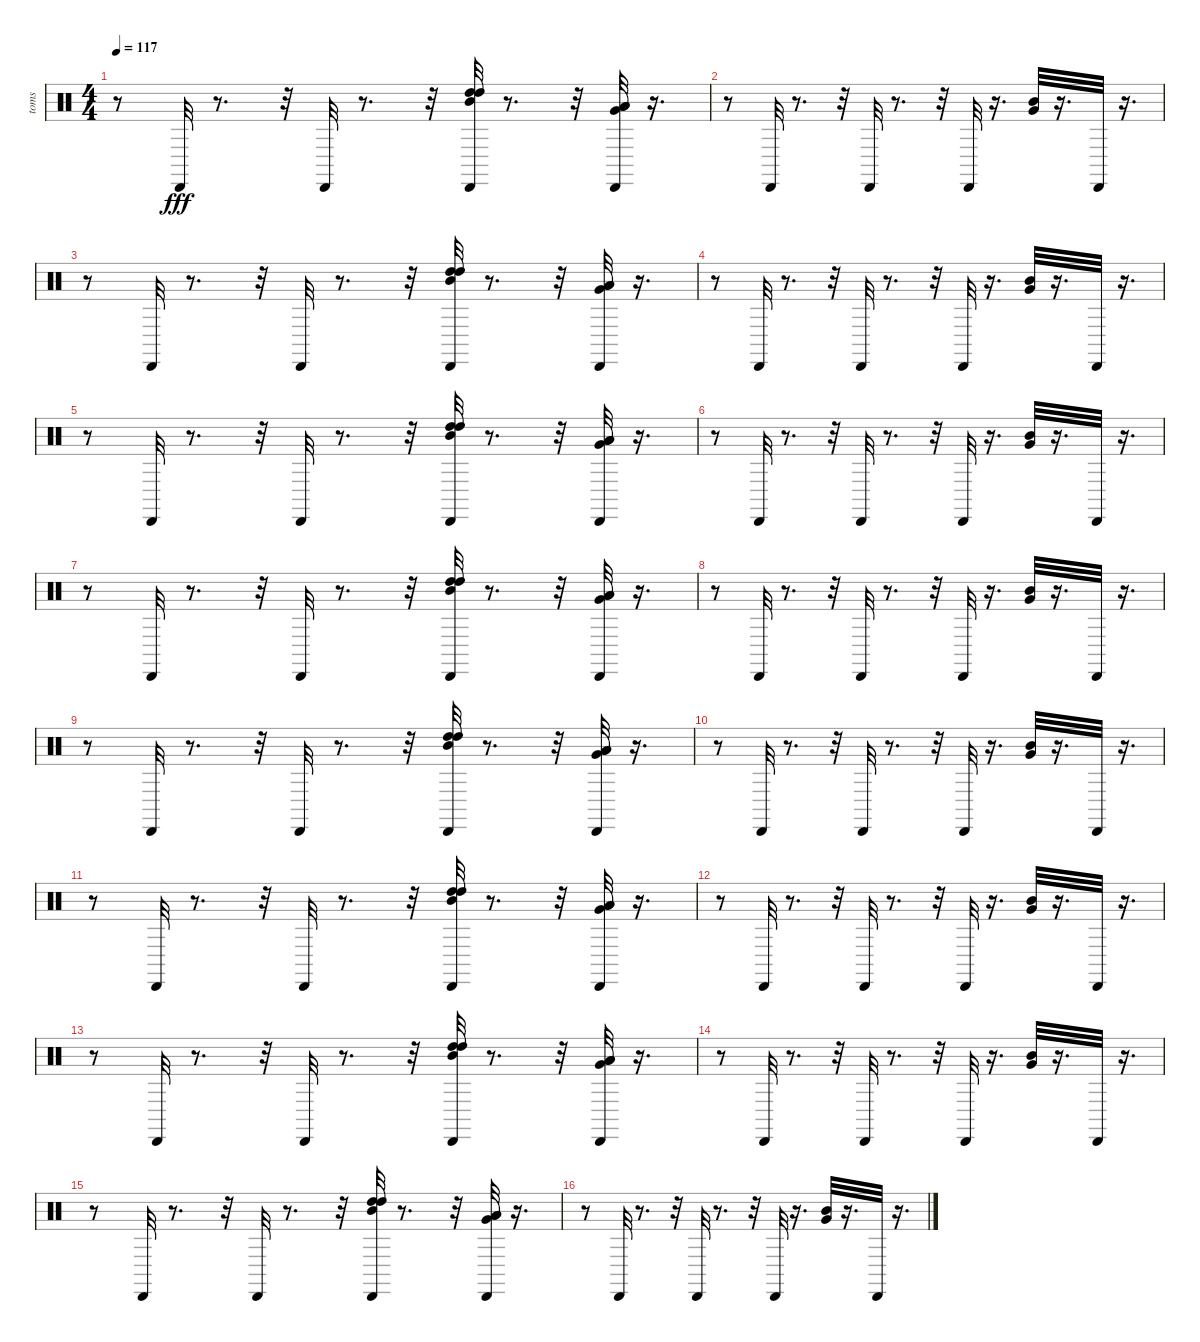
\track ("toms" "toms") {instrument percussion}
\staff {score}
\articulation defaults
\ts (4 4)
\tempo 117
\clef neutral
\ks c
r.8{dy fff} "Cabasa (hit)".32 r.8{d} r.32 "Cabasa (hit)".32 r.8{d} r.32 ("High Tom (hit)" "High Tom (hit)" "Mid Tom (hit)" "Cabasa (hit)").32 r.8{d} r.32 ("Low Tom (hit)" "Low Tom (hit)" "Very Low Tom (hit)" "Cabasa (hit)").32 r.16{d} |
r.8 "Cabasa (hit)".32 r.8{d} r.32 "Cabasa (hit)".32 r.8{d} r.32 "Cabasa (hit)".32 r.16{d} ("Very Low Tom (hit)" "Mid Tom (hit)").32 r.16{d} "Cabasa (hit)".32 r.16{d} |
r.8 "Cabasa (hit)".32 r.8{d} r.32 "Cabasa (hit)".32 r.8{d} r.32 ("High Tom (hit)" "High Tom (hit)" "Mid Tom (hit)" "Cabasa (hit)").32 r.8{d} r.32 ("Low Tom (hit)" "Low Tom (hit)" "Very Low Tom (hit)" "Cabasa (hit)").32 r.16{d} |
r.8 "Cabasa (hit)".32 r.8{d} r.32 "Cabasa (hit)".32 r.8{d} r.32 "Cabasa (hit)".32 r.16{d} ("Very Low Tom (hit)" "Mid Tom (hit)").32 r.16{d} "Cabasa (hit)".32 r.16{d} |
r.8 "Cabasa (hit)".32 r.8{d} r.32 "Cabasa (hit)".32 r.8{d} r.32 ("High Tom (hit)" "High Tom (hit)" "Mid Tom (hit)" "Cabasa (hit)").32 r.8{d} r.32 ("Low Tom (hit)" "Low Tom (hit)" "Very Low Tom (hit)" "Cabasa (hit)").32 r.16{d} |
r.8 "Cabasa (hit)".32 r.8{d} r.32 "Cabasa (hit)".32 r.8{d} r.32 "Cabasa (hit)".32 r.16{d} ("Very Low Tom (hit)" "Mid Tom (hit)").32 r.16{d} "Cabasa (hit)".32 r.16{d} |
r.8 "Cabasa (hit)".32 r.8{d} r.32 "Cabasa (hit)".32 r.8{d} r.32 ("High Tom (hit)" "High Tom (hit)" "Mid Tom (hit)" "Cabasa (hit)").32 r.8{d} r.32 ("Low Tom (hit)" "Low Tom (hit)" "Very Low Tom (hit)" "Cabasa (hit)").32 r.16{d} |
r.8 "Cabasa (hit)".32 r.8{d} r.32 "Cabasa (hit)".32 r.8{d} r.32 "Cabasa (hit)".32 r.16{d} ("Very Low Tom (hit)" "Mid Tom (hit)").32 r.16{d} "Cabasa (hit)".32 r.16{d} |
r.8 "Cabasa (hit)".32 r.8{d} r.32 "Cabasa (hit)".32 r.8{d} r.32 ("High Tom (hit)" "High Tom (hit)" "Mid Tom (hit)" "Cabasa (hit)").32 r.8{d} r.32 ("Low Tom (hit)" "Low Tom (hit)" "Very Low Tom (hit)" "Cabasa (hit)").32 r.16{d} |
r.8 "Cabasa (hit)".32 r.8{d} r.32 "Cabasa (hit)".32 r.8{d} r.32 "Cabasa (hit)".32 r.16{d} ("Very Low Tom (hit)" "Mid Tom (hit)").32 r.16{d} "Cabasa (hit)".32 r.16{d} |
r.8 "Cabasa (hit)".32 r.8{d} r.32 "Cabasa (hit)".32 r.8{d} r.32 ("High Tom (hit)" "High Tom (hit)" "Mid Tom (hit)" "Cabasa (hit)").32 r.8{d} r.32 ("Low Tom (hit)" "Low Tom (hit)" "Very Low Tom (hit)" "Cabasa (hit)").32 r.16{d} |
r.8 "Cabasa (hit)".32 r.8{d} r.32 "Cabasa (hit)".32 r.8{d} r.32 "Cabasa (hit)".32 r.16{d} ("Very Low Tom (hit)" "Mid Tom (hit)").32 r.16{d} "Cabasa (hit)".32 r.16{d} |
r.8 "Cabasa (hit)".32 r.8{d} r.32 "Cabasa (hit)".32 r.8{d} r.32 ("High Tom (hit)" "High Tom (hit)" "Mid Tom (hit)" "Cabasa (hit)").32 r.8{d} r.32 ("Low Tom (hit)" "Low Tom (hit)" "Very Low Tom (hit)" "Cabasa (hit)").32 r.16{d} |
r.8 "Cabasa (hit)".32 r.8{d} r.32 "Cabasa (hit)".32 r.8{d} r.32 "Cabasa (hit)".32 r.16{d} ("Very Low Tom (hit)" "Mid Tom (hit)").32 r.16{d} "Cabasa (hit)".32 r.16{d} |
r.8 "Cabasa (hit)".32 r.8{d} r.32 "Cabasa (hit)".32 r.8{d} r.32 ("High Tom (hit)" "High Tom (hit)" "Mid Tom (hit)" "Cabasa (hit)").32 r.8{d} r.32 ("Low Tom (hit)" "Low Tom (hit)" "Very Low Tom (hit)" "Cabasa (hit)").32 r.16{d} |
r.8 "Cabasa (hit)".32 r.8{d} r.32 "Cabasa (hit)".32 r.8{d} r.32 "Cabasa (hit)".32 r.16{d} ("Very Low Tom (hit)" "Mid Tom (hit)").32 r.16{d} "Cabasa (hit)".32 r.16{d}
